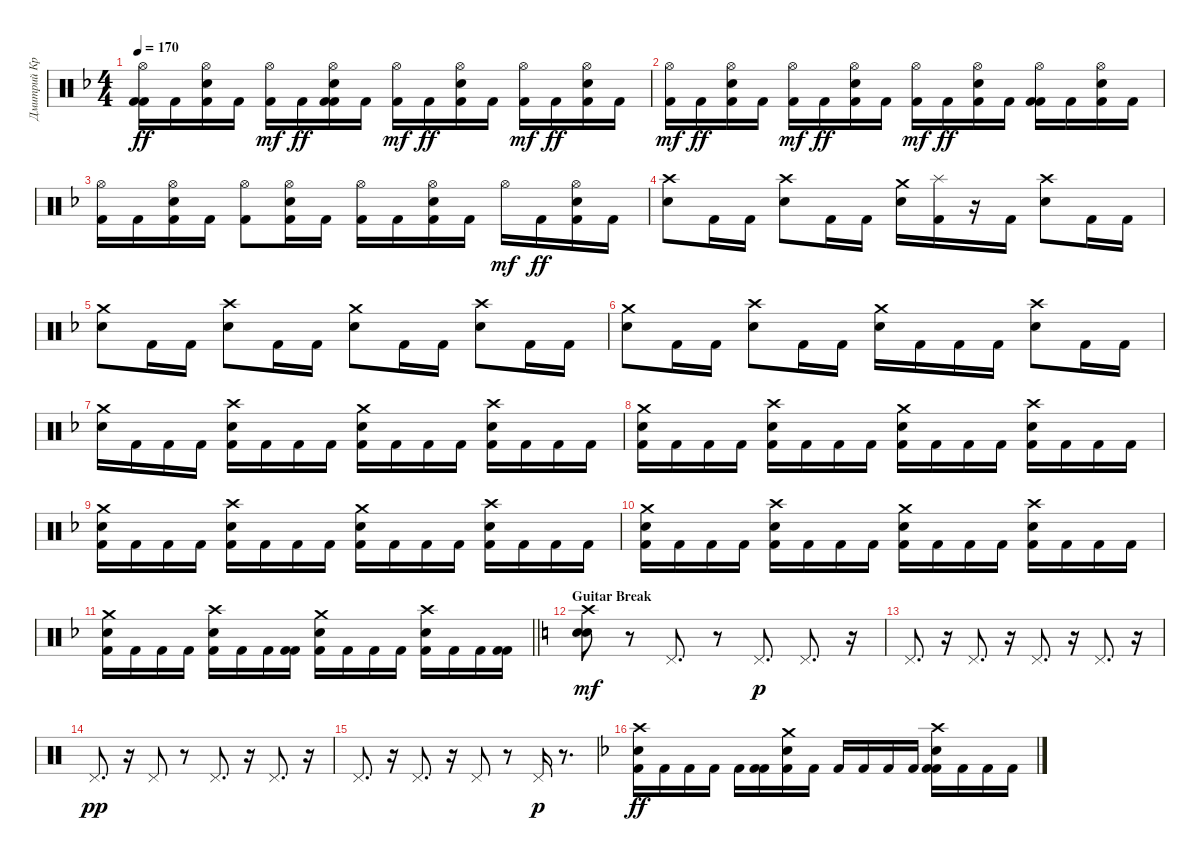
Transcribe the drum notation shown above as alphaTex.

\track ("Дмитрий Кривенков" "Дмитрий Кр") {instrument percussion}
\staff {score}
\articulation defaults
\ts (4 4)
\tempo 170
\clef neutral
\ks f
("Kick (hit) 2" "Hi-Hat (open)" "Kick (hit) 2").16{dy ff} "Kick (hit) 2".16 ("Hi-Hat (open)" "Electric Snare (hit)" "Kick (hit) 2").16 "Kick (hit) 2".16 ("Kick (hit) 2" "Hi-Hat (open)").16{dy mf} "Kick (hit) 2".16{dy ff} ("Kick (hit) 2" "Hi-Hat (open)" "Electric Snare (hit)" "Kick (hit) 2").16 "Kick (hit) 2".16 ("Kick (hit) 2" "Hi-Hat (open)").16{dy mf} "Kick (hit) 2".16{dy ff} ("Kick (hit) 2" "Hi-Hat (open)" "Electric Snare (hit)").16 "Kick (hit) 2".16 ("Kick (hit) 2" "Hi-Hat (open)").16{dy mf} "Kick (hit) 2".16{dy ff} ("Kick (hit) 2" "Hi-Hat (open)" "Electric Snare (hit)").16 "Kick (hit) 2".16 |
("Kick (hit) 2" "Hi-Hat (open)").16{dy mf} "Kick (hit) 2".16{dy ff} ("Kick (hit) 2" "Hi-Hat (open)" "Electric Snare (hit)").16 "Kick (hit) 2".16 ("Kick (hit) 2" "Hi-Hat (open)").16{dy mf} "Kick (hit) 2".16{dy ff} ("Kick (hit) 2" "Hi-Hat (open)" "Electric Snare (hit)").16 "Kick (hit) 2".16 ("Kick (hit) 2" "Hi-Hat (open)").16{dy mf} "Kick (hit) 2".16{dy ff} ("Kick (hit) 2" "Hi-Hat (open)" "Electric Snare (hit)").16 "Kick (hit) 2".16 ("Kick (hit) 2" "Hi-Hat (open)" "Kick (hit) 2").16 "Kick (hit) 2".16 ("Hi-Hat (open)" "Electric Snare (hit)" "Kick (hit) 2").16 "Kick (hit) 2".16 |
("Hi-Hat (open)" "Kick (hit) 2").16 "Kick (hit) 2".16 ("Hi-Hat (open)" "Electric Snare (hit)" "Kick (hit) 2").16 "Kick (hit) 2".16 ("Hi-Hat (open)" "Kick (hit) 2").8 ("Kick (hit) 2" "Hi-Hat (open)" "Electric Snare (hit)").16 "Kick (hit) 2".16 ("Hi-Hat (open)" "Kick (hit) 2").16 "Kick (hit) 2".16 ("Hi-Hat (open)" "Electric Snare (hit)" "Kick (hit) 2").16 "Kick (hit) 2".16 "Hi-Hat (open)".16{dy mf} "Kick (hit) 2".16{dy ff} ("Hi-Hat (open)" "Electric Snare (hit)" "Kick (hit) 2").16 "Kick (hit) 2".16 |
("Electric Snare (hit)" "Crash high (hit)").8 "Kick (hit) 2".16 "Kick (hit) 2".16 ("Electric Snare (hit)" "Crash high (hit)").8 "Kick (hit) 2".16 "Kick (hit) 2".16 ("Electric Snare (hit)" "Crash medium (hit)").16 ("Splash (hit)" "Kick (hit) 2").16 r.16 "Kick (hit) 2".16 ("Electric Snare (hit)" "Crash high (hit)").8 "Kick (hit) 2".16 "Kick (hit) 2".16 |
("Electric Snare (hit)" "Crash medium (hit)").8 "Kick (hit) 2".16 "Kick (hit) 2".16 ("Electric Snare (hit)" "Crash high (hit)").8 "Kick (hit) 2".16 "Kick (hit) 2".16 ("Electric Snare (hit)" "Crash medium (hit)").8 "Kick (hit) 2".16 "Kick (hit) 2".16 ("Electric Snare (hit)" "Crash high (hit)").8 "Kick (hit) 2".16 "Kick (hit) 2".16 |
("Electric Snare (hit)" "Crash medium (hit)").8 "Kick (hit) 2".16 "Kick (hit) 2".16 ("Electric Snare (hit)" "Crash high (hit)").8 "Kick (hit) 2".16 "Kick (hit) 2".16 ("Electric Snare (hit)" "Crash medium (hit)").16 "Kick (hit) 2".16 "Kick (hit) 2".16 "Kick (hit) 2".16 ("Electric Snare (hit)" "Crash high (hit)").8 "Kick (hit) 2".16 "Kick (hit) 2".16 |
("Electric Snare (hit)" "Crash medium (hit)").16 "Kick (hit) 2".16 "Kick (hit) 2".16 "Kick (hit) 2".16 ("Kick (hit) 2" "Electric Snare (hit)" "Crash high (hit)").16 "Kick (hit) 2".16 "Kick (hit) 2".16 "Kick (hit) 2".16 ("Kick (hit) 2" "Electric Snare (hit)" "Crash medium (hit)").16 "Kick (hit) 2".16 "Kick (hit) 2".16 "Kick (hit) 2".16 ("Kick (hit) 2" "Electric Snare (hit)" "Crash high (hit)").16 "Kick (hit) 2".16 "Kick (hit) 2".16 "Kick (hit) 2".16 |
("Electric Snare (hit)" "Kick (hit) 2" "Crash medium (hit)").16 "Kick (hit) 2".16 "Kick (hit) 2".16 "Kick (hit) 2".16 ("Electric Snare (hit)" "Kick (hit) 2" "Crash high (hit)").16 "Kick (hit) 2".16 "Kick (hit) 2".16 "Kick (hit) 2".16 ("Electric Snare (hit)" "Kick (hit) 2" "Crash medium (hit)").16 "Kick (hit) 2".16 "Kick (hit) 2".16 "Kick (hit) 2".16 ("Kick (hit) 2" "Electric Snare (hit)" "Crash high (hit)").16 "Kick (hit) 2".16 "Kick (hit) 2".16 "Kick (hit) 2".16 |
("Kick (hit) 2" "Electric Snare (hit)" "Crash medium (hit)").16 "Kick (hit) 2".16 "Kick (hit) 2".16 "Kick (hit) 2".16 ("Kick (hit) 2" "Electric Snare (hit)" "Crash high (hit)").16 "Kick (hit) 2".16 "Kick (hit) 2".16 "Kick (hit) 2".16 ("Kick (hit) 2" "Electric Snare (hit)" "Crash medium (hit)").16 "Kick (hit) 2".16 "Kick (hit) 2".16 "Kick (hit) 2".16 ("Kick (hit) 2" "Electric Snare (hit)" "Crash high (hit)").16 "Kick (hit) 2".16 "Kick (hit) 2".16 "Kick (hit) 2".16 |
("Electric Snare (hit)" "Kick (hit) 2" "Crash medium (hit)").16 "Kick (hit) 2".16 "Kick (hit) 2".16 "Kick (hit) 2".16 ("Kick (hit) 2" "Electric Snare (hit)" "Crash high (hit)").16 "Kick (hit) 2".16 "Kick (hit) 2".16 "Kick (hit) 2".16 ("Kick (hit) 2" "Electric Snare (hit)" "Crash medium (hit)").16 "Kick (hit) 2".16 "Kick (hit) 2".16 "Kick (hit) 2".16 ("Kick (hit) 2" "Electric Snare (hit)" "Crash high (hit)").16 "Kick (hit) 2".16 "Kick (hit) 2".16 "Kick (hit) 2".16 |
\barLineRight lightlight
("Kick (hit) 2" "Electric Snare (hit)" "Crash medium (hit)").16 "Kick (hit) 2".16 "Kick (hit) 2".16 "Kick (hit) 2".16 ("Electric Snare (hit)" "Kick (hit) 2" "Crash high (hit)").16 "Kick (hit) 2".16 "Kick (hit) 2".16 ("Kick (hit) 2" "Kick (hit) 2").16 ("Kick (hit) 2" "Electric Snare (hit)" "Crash medium (hit)").16 "Kick (hit) 2".16 "Kick (hit) 2".16 "Kick (hit) 2".16 ("Electric Snare (hit)" "Kick (hit) 2" "Crash high (hit)").16 "Kick (hit) 2".16 "Kick (hit) 2".16 ("Kick (hit) 2" "Kick (hit) 2").16 |
\section ("" "Guitar Break")
\ks c
("Electric Snare (hit)" "Electric Snare (hit)" "Crash high (hit)").8{dy mf} r.8 "Pedal Hi-Hat (hit)".8{d} r.8 "Pedal Hi-Hat (hit)".8{d dy p} "Pedal Hi-Hat (hit)".8{d} r.16 |
"Pedal Hi-Hat (hit)".8{d} r.16 "Pedal Hi-Hat (hit)".8{d} r.16 "Pedal Hi-Hat (hit)".8{d} r.16 "Pedal Hi-Hat (hit)".8{d} r.16 |
"Pedal Hi-Hat (hit)".8{d dy pp} r.16 "Pedal Hi-Hat (hit)".8 r.8 "Pedal Hi-Hat (hit)".8{d} r.16 "Pedal Hi-Hat (hit)".8{d} r.16 |
"Pedal Hi-Hat (hit)".8{d} r.16 "Pedal Hi-Hat (hit)".8{d} r.16 "Pedal Hi-Hat (hit)".8 r.8 "Pedal Hi-Hat (hit)".16{dy p} r.8{d} |
\ks f
("Kick (hit) 2" "Electric Snare (hit)" "Crash high (hit)").16{dy ff} "Kick (hit) 2".16 "Kick (hit) 2".16 "Kick (hit) 2".16 "Kick (hit) 2".16 ("Kick (hit) 2" "Kick (hit) 2").16 ("Kick (hit) 2" "Electric Snare (hit)" "Crash medium (hit)").16 "Kick (hit) 2".16 "Kick (hit) 2".16 "Kick (hit) 2".16 "Kick (hit) 2".16 "Kick (hit) 2".16 ("Kick (hit) 2" "Electric Snare (hit)" "Crash high (hit)" "Kick (hit) 2").16 "Kick (hit) 2".16 "Kick (hit) 2".16 "Kick (hit) 2".16
